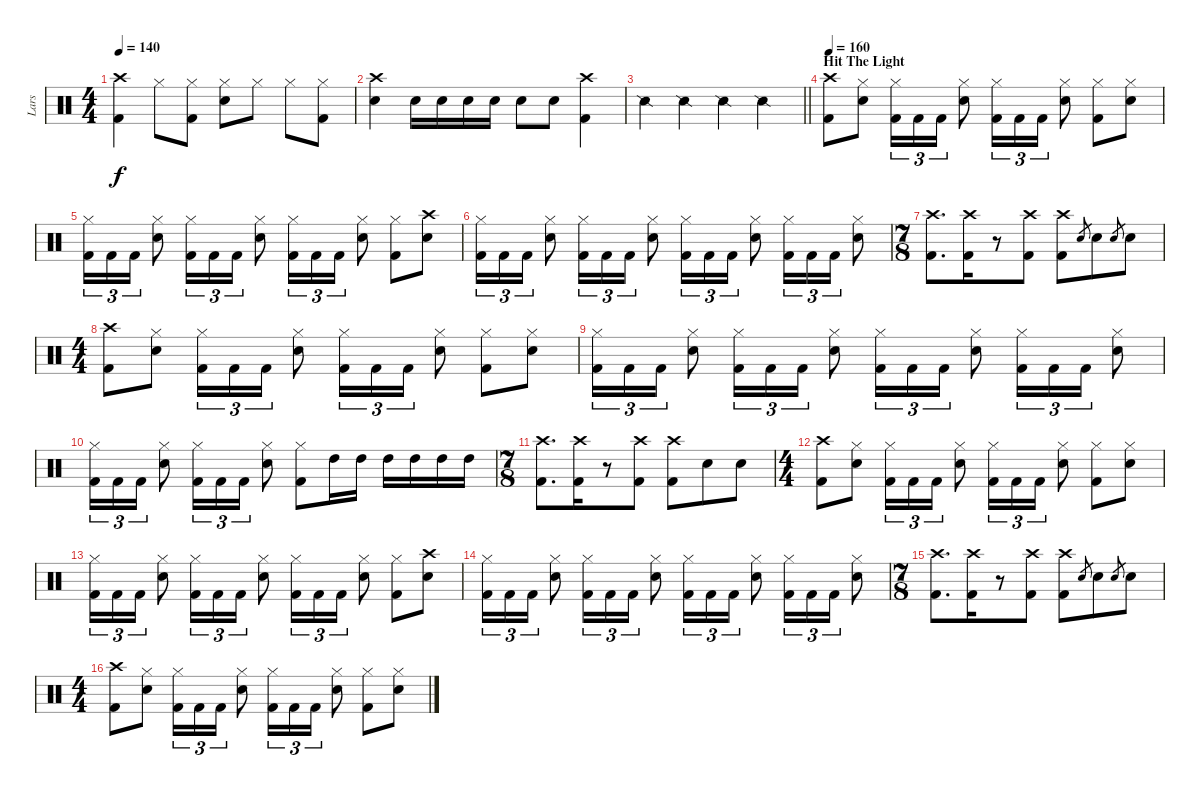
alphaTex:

\track ("Lars" "Lars") {instrument percussion}
\staff {score}
\articulation defaults
\ts (4 4)
\tempo 140
\clef neutral
\ks c
("Crash high (hit)" "Kick (hit) 2").4{dy f} "Hi-Hat (closed)".8 ("Hi-Hat (closed)" "Kick (hit) 2").8 ("Hi-Hat (closed)" "Snare (hit) 2").8 "Hi-Hat (closed)".8 "Hi-Hat (closed)".8 ("Hi-Hat (closed)" "Kick (hit) 2").8 |
("Crash high (hit)" "Snare (hit) 2").4 "Snare (hit) 2".16 "Snare (hit) 2".16 "Snare (hit) 2".16 "Snare (hit) 2".16 "Snare (hit) 2".8 "Snare (hit) 2".8 ("Crash high (hit)" "Kick (hit) 2").4 |
\barLineRight lightlight "Snare (side stick) 2".4 "Snare (side stick) 2".4 "Snare (side stick) 2".4 "Snare (side stick) 2".4
|
\section ("" "Hit The Light")
\tempo 160
("Crash high (hit)" "Kick (hit) 2").8 ("Hi-Hat (closed)" "Snare (hit) 2").8 ("Hi-Hat (closed)" "Kick (hit) 2").16{tu (3 2)} "Kick (hit) 2".16{tu (3 2)} "Kick (hit) 2".16{tu (3 2)} ("Hi-Hat (closed)" "Snare (hit) 2").8 ("Hi-Hat (closed)" "Kick (hit) 2").16{tu (3 2)} "Kick (hit) 2".16{tu (3 2)} "Kick (hit) 2".16{tu (3 2)} ("Hi-Hat (closed)" "Snare (hit) 2").8 ("Hi-Hat (closed)" "Kick (hit) 2").8 ("Hi-Hat (closed)" "Snare (hit) 2").8 |
("Hi-Hat (closed)" "Kick (hit) 2").16{tu (3 2)} "Kick (hit) 2".16{tu (3 2)} "Kick (hit) 2".16{tu (3 2)} ("Hi-Hat (closed)" "Snare (hit) 2").8 ("Hi-Hat (closed)" "Kick (hit) 2").16{tu (3 2)} "Kick (hit) 2".16{tu (3 2)} "Kick (hit) 2".16{tu (3 2)} ("Hi-Hat (closed)" "Snare (hit) 2").8 ("Hi-Hat (closed)" "Kick (hit) 2").16{tu (3 2)} "Kick (hit) 2".16{tu (3 2)} "Kick (hit) 2".16{tu (3 2)} ("Hi-Hat (closed)" "Snare (hit) 2").8 ("Hi-Hat (closed)" "Kick (hit) 2").8 ("Crash high (hit)" "Snare (hit) 2").8 |
("Hi-Hat (closed)" "Kick (hit) 2").16{tu (3 2)} "Kick (hit) 2".16{tu (3 2)} "Kick (hit) 2".16{tu (3 2)} ("Hi-Hat (closed)" "Snare (hit) 2").8 ("Hi-Hat (closed)" "Kick (hit) 2").16{tu (3 2)} "Kick (hit) 2".16{tu (3 2)} "Kick (hit) 2".16{tu (3 2)} ("Hi-Hat (closed)" "Snare (hit) 2").8 ("Hi-Hat (closed)" "Kick (hit) 2").16{tu (3 2)} "Kick (hit) 2".16{tu (3 2)} "Kick (hit) 2".16{tu (3 2)} ("Hi-Hat (closed)" "Snare (hit) 2").8 ("Hi-Hat (closed)" "Kick (hit) 2").16{tu (3 2)} "Kick (hit) 2".16{tu (3 2)} "Kick (hit) 2".16{tu (3 2)} ("Hi-Hat (closed)" "Snare (hit) 2").8 |
\ts (7 8)
("Crash high (hit)" "Kick (hit) 2").8{d} ("Crash high (hit)" "Kick (hit) 2").16 r.8 ("Crash high (hit)" "Kick (hit) 2").8 ("Crash high (hit)" "Kick (hit) 2").8 "Snare (hit) 2".8{gr} "Snare (hit) 2".8 "Snare (hit) 2".8{gr} "Snare (hit) 2".8 |
\ts (4 4)
("Crash high (hit)" "Kick (hit) 2").8 ("Hi-Hat (closed)" "Snare (hit) 2").8 ("Hi-Hat (closed)" "Kick (hit) 2").16{tu (3 2)} "Kick (hit) 2".16{tu (3 2)} "Kick (hit) 2".16{tu (3 2)} ("Hi-Hat (closed)" "Snare (hit) 2").8 ("Hi-Hat (closed)" "Kick (hit) 2").16{tu (3 2)} "Kick (hit) 2".16{tu (3 2)} "Kick (hit) 2".16{tu (3 2)} ("Hi-Hat (closed)" "Snare (hit) 2").8 ("Hi-Hat (closed)" "Kick (hit) 2").8 ("Hi-Hat (closed)" "Snare (hit) 2").8 |
("Hi-Hat (closed)" "Kick (hit) 2").16{tu (3 2)} "Kick (hit) 2".16{tu (3 2)} "Kick (hit) 2".16{tu (3 2)} ("Hi-Hat (closed)" "Snare (hit) 2").8 ("Hi-Hat (closed)" "Kick (hit) 2").16{tu (3 2)} "Kick (hit) 2".16{tu (3 2)} "Kick (hit) 2".16{tu (3 2)} ("Hi-Hat (closed)" "Snare (hit) 2").8 ("Hi-Hat (closed)" "Kick (hit) 2").16{tu (3 2)} "Kick (hit) 2".16{tu (3 2)} "Kick (hit) 2".16{tu (3 2)} ("Hi-Hat (closed)" "Snare (hit) 2").8 ("Hi-Hat (closed)" "Kick (hit) 2").16{tu (3 2)} "Kick (hit) 2".16{tu (3 2)} "Kick (hit) 2".16{tu (3 2)} ("Hi-Hat (closed)" "Snare (hit) 2").8 |
("Hi-Hat (closed)" "Kick (hit) 2").16{tu (3 2)} "Kick (hit) 2".16{tu (3 2)} "Kick (hit) 2".16{tu (3 2)} ("Hi-Hat (closed)" "Snare (hit) 2").8 ("Hi-Hat (closed)" "Kick (hit) 2").16{tu (3 2)} "Kick (hit) 2".16{tu (3 2)} "Kick (hit) 2".16{tu (3 2)} ("Hi-Hat (closed)" "Snare (hit) 2").8 ("Hi-Hat (closed)" "Kick (hit) 2").8 "High Tom (hit)".16 "High Tom (hit)".16 "High Tom (hit)".16 "High Tom (hit)".16 "High Tom (hit)".16 "High Tom (hit)".16 |
\ts (7 8)
("Crash high (hit)" "Kick (hit) 2").8{d} ("Crash high (hit)" "Kick (hit) 2").16 r.8 ("Crash high (hit)" "Kick (hit) 2").8 ("Crash high (hit)" "Kick (hit) 2").8 "Snare (hit) 2".8 "Snare (hit) 2".8 |
\ts (4 4)
("Crash high (hit)" "Kick (hit) 2").8 ("Hi-Hat (closed)" "Snare (hit) 2").8 ("Hi-Hat (closed)" "Kick (hit) 2").16{tu (3 2)} "Kick (hit) 2".16{tu (3 2)} "Kick (hit) 2".16{tu (3 2)} ("Hi-Hat (closed)" "Snare (hit) 2").8 ("Hi-Hat (closed)" "Kick (hit) 2").16{tu (3 2)} "Kick (hit) 2".16{tu (3 2)} "Kick (hit) 2".16{tu (3 2)} ("Hi-Hat (closed)" "Snare (hit) 2").8 ("Hi-Hat (closed)" "Kick (hit) 2").8 ("Hi-Hat (closed)" "Snare (hit) 2").8 |
("Hi-Hat (closed)" "Kick (hit) 2").16{tu (3 2)} "Kick (hit) 2".16{tu (3 2)} "Kick (hit) 2".16{tu (3 2)} ("Hi-Hat (closed)" "Snare (hit) 2").8 ("Hi-Hat (closed)" "Kick (hit) 2").16{tu (3 2)} "Kick (hit) 2".16{tu (3 2)} "Kick (hit) 2".16{tu (3 2)} ("Hi-Hat (closed)" "Snare (hit) 2").8 ("Hi-Hat (closed)" "Kick (hit) 2").16{tu (3 2)} "Kick (hit) 2".16{tu (3 2)} "Kick (hit) 2".16{tu (3 2)} ("Hi-Hat (closed)" "Snare (hit) 2").8 ("Hi-Hat (closed)" "Kick (hit) 2").8 ("Crash high (hit)" "Snare (hit) 2").8 |
("Hi-Hat (closed)" "Kick (hit) 2").16{tu (3 2)} "Kick (hit) 2".16{tu (3 2)} "Kick (hit) 2".16{tu (3 2)} ("Hi-Hat (closed)" "Snare (hit) 2").8 ("Hi-Hat (closed)" "Kick (hit) 2").16{tu (3 2)} "Kick (hit) 2".16{tu (3 2)} "Kick (hit) 2".16{tu (3 2)} ("Hi-Hat (closed)" "Snare (hit) 2").8 ("Hi-Hat (closed)" "Kick (hit) 2").16{tu (3 2)} "Kick (hit) 2".16{tu (3 2)} "Kick (hit) 2".16{tu (3 2)} ("Hi-Hat (closed)" "Snare (hit) 2").8 ("Hi-Hat (closed)" "Kick (hit) 2").16{tu (3 2)} "Kick (hit) 2".16{tu (3 2)} "Kick (hit) 2".16{tu (3 2)} ("Hi-Hat (closed)" "Snare (hit) 2").8 |
\ts (7 8)
("Crash high (hit)" "Kick (hit) 2").8{d} ("Crash high (hit)" "Kick (hit) 2").16 r.8 ("Crash high (hit)" "Kick (hit) 2").8 ("Crash high (hit)" "Kick (hit) 2").8 "Snare (hit) 2".8{gr} "Snare (hit) 2".8 "Snare (hit) 2".8{gr} "Snare (hit) 2".8 |
\ts (4 4)
("Crash high (hit)" "Kick (hit) 2").8 ("Hi-Hat (closed)" "Snare (hit) 2").8 ("Hi-Hat (closed)" "Kick (hit) 2").16{tu (3 2)} "Kick (hit) 2".16{tu (3 2)} "Kick (hit) 2".16{tu (3 2)} ("Hi-Hat (closed)" "Snare (hit) 2").8 ("Hi-Hat (closed)" "Kick (hit) 2").16{tu (3 2)} "Kick (hit) 2".16{tu (3 2)} "Kick (hit) 2".16{tu (3 2)} ("Hi-Hat (closed)" "Snare (hit) 2").8 ("Hi-Hat (closed)" "Kick (hit) 2").8 ("Hi-Hat (closed)" "Snare (hit) 2").8
